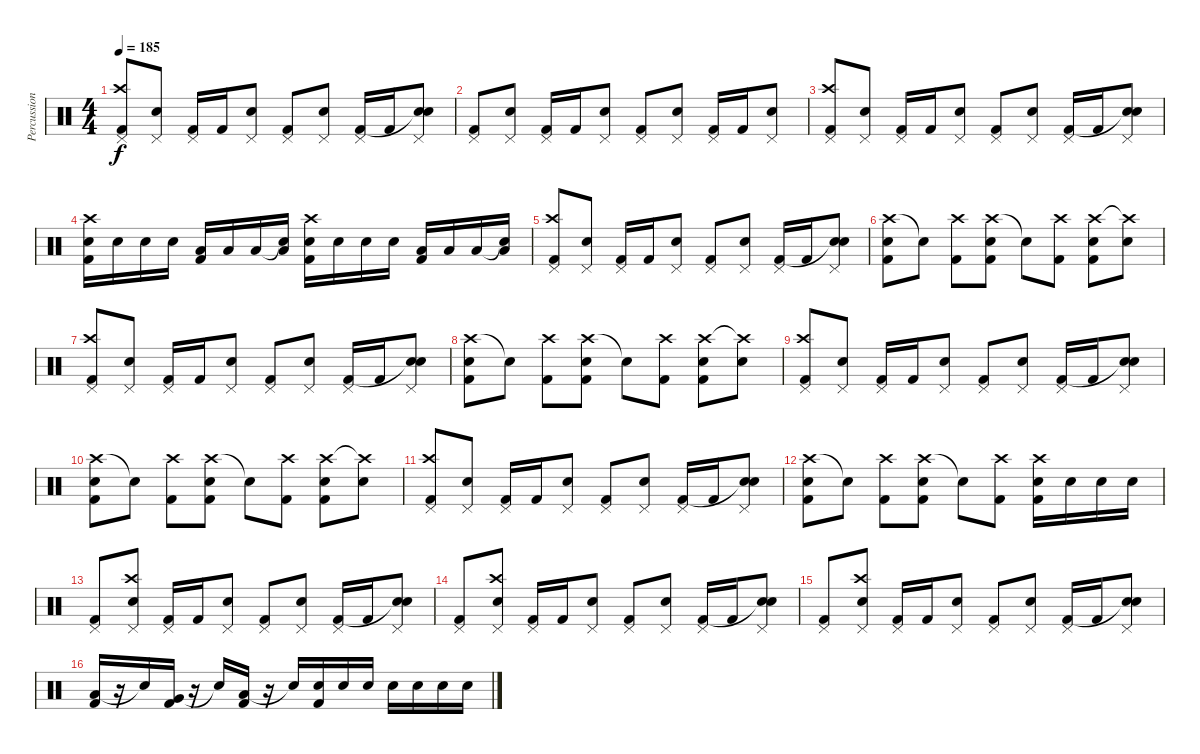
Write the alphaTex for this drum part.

\track ("Percussions" "Percussion") {instrument percussion}
\staff {score}
\articulation defaults
\ts (4 4)
\tempo 185
\clef neutral
\ks c
("Pedal Hi-Hat (hit)" "Crash high (hit)" "Kick (hit) 2").8{dy f} ("Pedal Hi-Hat (hit)" "Snare (hit) 2").8 ("Pedal Hi-Hat (hit)" "Kick (hit) 2").16 "Kick (hit) 2".16 ("Pedal Hi-Hat (hit)" "Snare (hit) 2").8 ("Pedal Hi-Hat (hit)" "Kick (hit) 2").8 ("Pedal Hi-Hat (hit)" "Snare (hit) 2").8 ("Pedal Hi-Hat (hit)" "Kick (hit) 2").16 "Kick (hit) 2".16 ("Pedal Hi-Hat (hit)" "Snare (hit)"{t} "Snare (hit) 2").8 |
("Pedal Hi-Hat (hit)" "Kick (hit) 2").8 ("Pedal Hi-Hat (hit)" "Snare (hit) 2").8 ("Pedal Hi-Hat (hit)" "Kick (hit) 2").16 "Kick (hit) 2".16 ("Pedal Hi-Hat (hit)" "Snare (hit) 2").8 ("Pedal Hi-Hat (hit)" "Kick (hit) 2").8 ("Pedal Hi-Hat (hit)" "Snare (hit) 2").8 ("Pedal Hi-Hat (hit)" "Kick (hit) 2").16 "Kick (hit) 2".16 ("Pedal Hi-Hat (hit)" "Snare (hit) 2").8 |
("Pedal Hi-Hat (hit)" "Crash high (hit)" "Kick (hit) 2").8 ("Pedal Hi-Hat (hit)" "Snare (hit) 2").8 ("Pedal Hi-Hat (hit)" "Kick (hit) 2").16 "Kick (hit) 2".16 ("Pedal Hi-Hat (hit)" "Snare (hit) 2").8 ("Pedal Hi-Hat (hit)" "Kick (hit) 2").8 ("Pedal Hi-Hat (hit)" "Snare (hit) 2").8 ("Pedal Hi-Hat (hit)" "Kick (hit) 2").16 "Kick (hit) 2".16 ("Pedal Hi-Hat (hit)" "Snare (hit)"{t} "Snare (hit) 2").8 |
("Crash high (hit)" "Snare (hit) 2" "Kick (hit) 2").16 "Snare (hit) 2".16 "Snare (hit) 2".16 "Snare (hit) 2".16 ("Low Tom (hit)" "Kick (hit) 2").16 "Low Tom (hit)".16 "Low Tom (hit)".16 ("Snare (hit)"{t} "Low Tom (hit)").16 ("Crash high (hit)" "Snare (hit) 2" "Kick (hit) 2").16 "Snare (hit) 2".16 "Snare (hit) 2".16 "Snare (hit) 2".16 ("Low Floor Tom (hit)" "Kick (hit) 2").16 "Low Floor Tom (hit)".16 "Low Floor Tom (hit)".16 ("Snare (hit)"{t} "Low Floor Tom (hit)").16 |
("Pedal Hi-Hat (hit)" "Crash high (hit)" "Kick (hit) 2").8 ("Pedal Hi-Hat (hit)" "Snare (hit) 2").8 ("Pedal Hi-Hat (hit)" "Kick (hit) 2").16 "Kick (hit) 2".16 ("Pedal Hi-Hat (hit)" "Snare (hit) 2").8 ("Pedal Hi-Hat (hit)" "Kick (hit) 2").8 ("Pedal Hi-Hat (hit)" "Snare (hit) 2").8 ("Pedal Hi-Hat (hit)" "Kick (hit) 2").16 "Kick (hit) 2".16 ("Pedal Hi-Hat (hit)" "Snare (hit)"{t} "Snare (hit) 2").8 |
("Crash high (hit)" "Snare (hit) 2" "Kick (hit) 2").8 "Snare (hit)"{t}.8 ("Crash high (hit)" "Kick (hit) 2").8 ("Crash high (hit)" "Snare (hit) 2" "Kick (hit) 2").8 "Snare (hit)"{t}.8 ("Crash high (hit)" "Kick (hit) 2").8 ("Crash high (hit)" "Snare (hit) 2" "Kick (hit) 2").8 ("Crash high (hit)"{t} "Snare (hit) 2").8 |
("Pedal Hi-Hat (hit)" "Crash high (hit)" "Kick (hit) 2").8 ("Pedal Hi-Hat (hit)" "Snare (hit) 2").8 ("Pedal Hi-Hat (hit)" "Kick (hit) 2").16 "Kick (hit) 2".16 ("Pedal Hi-Hat (hit)" "Snare (hit) 2").8 ("Pedal Hi-Hat (hit)" "Kick (hit) 2").8 ("Pedal Hi-Hat (hit)" "Snare (hit) 2").8 ("Pedal Hi-Hat (hit)" "Kick (hit) 2").16 "Kick (hit) 2".16 ("Pedal Hi-Hat (hit)" "Snare (hit)"{t} "Snare (hit) 2").8 |
("Crash high (hit)" "Snare (hit) 2" "Kick (hit) 2").8 "Snare (hit)"{t}.8 ("Crash high (hit)" "Kick (hit) 2").8 ("Crash high (hit)" "Snare (hit) 2" "Kick (hit) 2").8 "Snare (hit)"{t}.8 ("Crash high (hit)" "Kick (hit) 2").8 ("Crash high (hit)" "Snare (hit) 2" "Kick (hit) 2").8 ("Crash high (hit)"{t} "Snare (hit) 2").8 |
("Pedal Hi-Hat (hit)" "Crash high (hit)" "Kick (hit) 2").8 ("Pedal Hi-Hat (hit)" "Snare (hit) 2").8 ("Pedal Hi-Hat (hit)" "Kick (hit) 2").16 "Kick (hit) 2".16 ("Pedal Hi-Hat (hit)" "Snare (hit) 2").8 ("Pedal Hi-Hat (hit)" "Kick (hit) 2").8 ("Pedal Hi-Hat (hit)" "Snare (hit) 2").8 ("Pedal Hi-Hat (hit)" "Kick (hit) 2").16 "Kick (hit) 2".16 ("Pedal Hi-Hat (hit)" "Snare (hit)"{t} "Snare (hit) 2").8 |
("Crash high (hit)" "Snare (hit) 2" "Kick (hit) 2").8 "Snare (hit)"{t}.8 ("Crash high (hit)" "Kick (hit) 2").8 ("Crash high (hit)" "Snare (hit) 2" "Kick (hit) 2").8 "Snare (hit)"{t}.8 ("Crash high (hit)" "Kick (hit) 2").8 ("Crash high (hit)" "Snare (hit) 2" "Kick (hit) 2").8 ("Crash high (hit)"{t} "Snare (hit) 2").8 |
("Pedal Hi-Hat (hit)" "Crash high (hit)" "Kick (hit) 2").8 ("Pedal Hi-Hat (hit)" "Snare (hit) 2").8 ("Pedal Hi-Hat (hit)" "Kick (hit) 2").16 "Kick (hit) 2".16 ("Pedal Hi-Hat (hit)" "Snare (hit) 2").8 ("Pedal Hi-Hat (hit)" "Kick (hit) 2").8 ("Pedal Hi-Hat (hit)" "Snare (hit) 2").8 ("Pedal Hi-Hat (hit)" "Kick (hit) 2").16 "Kick (hit) 2".16 ("Pedal Hi-Hat (hit)" "Snare (hit)"{t} "Snare (hit) 2").8 |
("Crash high (hit)" "Snare (hit) 2" "Kick (hit) 2").8 "Snare (hit)"{t}.8 ("Crash high (hit)" "Kick (hit) 2").8 ("Crash high (hit)" "Snare (hit) 2" "Kick (hit) 2").8 "Snare (hit)"{t}.8 ("Crash high (hit)" "Kick (hit) 2").8 ("Crash high (hit)" "Snare (hit) 2" "Kick (hit) 2").16 "Snare (hit) 2".16 "Snare (hit) 2".16 "Snare (hit) 2".16 |
("Pedal Hi-Hat (hit)" "Kick (hit) 2").8 ("Pedal Hi-Hat (hit)" "Crash high (hit)" "Snare (hit) 2").8 ("Pedal Hi-Hat (hit)" "Kick (hit) 2").16 "Kick (hit) 2".16 ("Pedal Hi-Hat (hit)" "Snare (hit) 2").8 ("Pedal Hi-Hat (hit)" "Kick (hit) 2").8 ("Pedal Hi-Hat (hit)" "Snare (hit) 2").8 ("Pedal Hi-Hat (hit)" "Kick (hit) 2").16 "Kick (hit) 2".16 ("Pedal Hi-Hat (hit)" "Snare (hit)"{t} "Snare (hit) 2").8 |
("Pedal Hi-Hat (hit)" "Kick (hit) 2").8 ("Pedal Hi-Hat (hit)" "Crash high (hit)" "Snare (hit) 2").8 ("Pedal Hi-Hat (hit)" "Kick (hit) 2").16 "Kick (hit) 2".16 ("Pedal Hi-Hat (hit)" "Snare (hit) 2").8 ("Pedal Hi-Hat (hit)" "Kick (hit) 2").8 ("Pedal Hi-Hat (hit)" "Snare (hit) 2").8 ("Pedal Hi-Hat (hit)" "Kick (hit) 2").16 "Kick (hit) 2".16 ("Pedal Hi-Hat (hit)" "Snare (hit)"{t} "Snare (hit) 2").8 |
("Pedal Hi-Hat (hit)" "Kick (hit) 2").8 ("Pedal Hi-Hat (hit)" "Crash high (hit)" "Snare (hit) 2").8 ("Pedal Hi-Hat (hit)" "Kick (hit) 2").16 "Kick (hit) 2".16 ("Pedal Hi-Hat (hit)" "Snare (hit) 2").8 ("Pedal Hi-Hat (hit)" "Kick (hit) 2").8 ("Pedal Hi-Hat (hit)" "Snare (hit) 2").8 ("Pedal Hi-Hat (hit)" "Kick (hit) 2").16 "Kick (hit) 2".16 ("Pedal Hi-Hat (hit)" "Snare (hit)"{t} "Snare (hit) 2").8 |
("Low Tom (hit)" "Kick (hit) 2").16 r.16 "Snare (hit)"{t}.16 ("Very Low Tom (hit)" "Kick (hit) 2").16 r.16 "Snare (hit)"{t}.16 ("Low Floor Tom (hit)" "Kick (hit) 2").16 r.16 "Snare (hit)"{t}.16 ("Snare (hit) 2" "Kick (hit) 2").16 "Snare (hit) 2".16 "Snare (hit) 2".16 "Snare (hit) 2".16 "Snare (hit) 2".16 "Snare (hit) 2".16 "Snare (hit) 2".16
